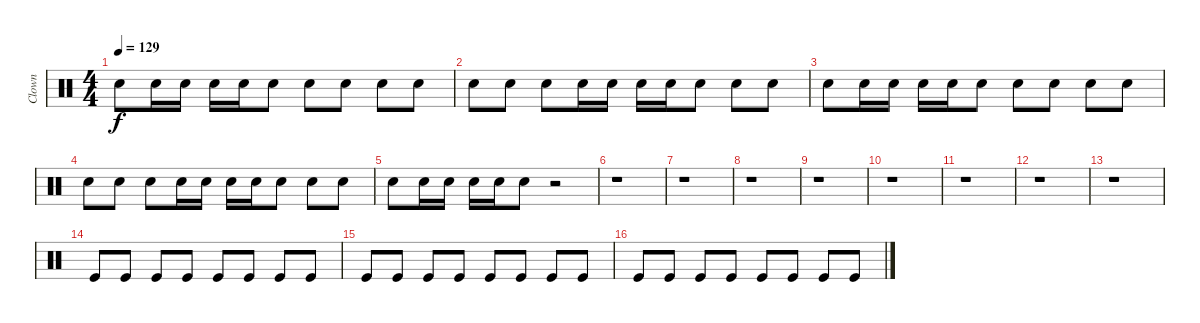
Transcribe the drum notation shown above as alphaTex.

\track ("Clown" "Clown") {instrument percussion}
\staff {score}
\articulation defaults
\ts (4 4)
\tempo 129
\clef neutral
\ks c "Snare (hit) 2".8{dy f} "Snare (hit) 2".16 "Snare (hit) 2".16 "Snare (hit) 2".16 "Snare (hit) 2".16 "Snare (hit) 2".8 "Snare (hit) 2".8 "Snare (hit) 2".8 "Snare (hit) 2".8 "Snare (hit) 2".8
|
"Snare (hit) 2".8 "Snare (hit) 2".8 "Snare (hit) 2".8 "Snare (hit) 2".16 "Snare (hit) 2".16 "Snare (hit) 2".16 "Snare (hit) 2".16 "Snare (hit) 2".8 "Snare (hit) 2".8 "Snare (hit) 2".8 |
"Snare (hit) 2".8 "Snare (hit) 2".16 "Snare (hit) 2".16 "Snare (hit) 2".16 "Snare (hit) 2".16 "Snare (hit) 2".8 "Snare (hit) 2".8 "Snare (hit) 2".8 "Snare (hit) 2".8 "Snare (hit) 2".8 |
"Snare (hit) 2".8 "Snare (hit) 2".8 "Snare (hit) 2".8 "Snare (hit) 2".16 "Snare (hit) 2".16 "Snare (hit) 2".16 "Snare (hit) 2".16 "Snare (hit) 2".8 "Snare (hit) 2".8 "Snare (hit) 2".8 |
"Snare (hit) 2".8 "Snare (hit) 2".16 "Snare (hit) 2".16 "Snare (hit) 2".16 "Snare (hit) 2".16 "Snare (hit) 2".8 r.2 |
r.1 |
r.1 |
r.1 |
r.1 |
r.1 |
r.1 |
r.1 |
r.1 |
"Kick (hit)".8 "Kick (hit)".8 "Kick (hit)".8 "Kick (hit)".8 "Kick (hit)".8 "Kick (hit)".8 "Kick (hit)".8 "Kick (hit)".8 |
"Kick (hit)".8 "Kick (hit)".8 "Kick (hit)".8 "Kick (hit)".8 "Kick (hit)".8 "Kick (hit)".8 "Kick (hit)".8 "Kick (hit)".8 |
"Kick (hit)".8 "Kick (hit)".8 "Kick (hit)".8 "Kick (hit)".8 "Kick (hit)".8 "Kick (hit)".8 "Kick (hit)".8 "Kick (hit)".8
